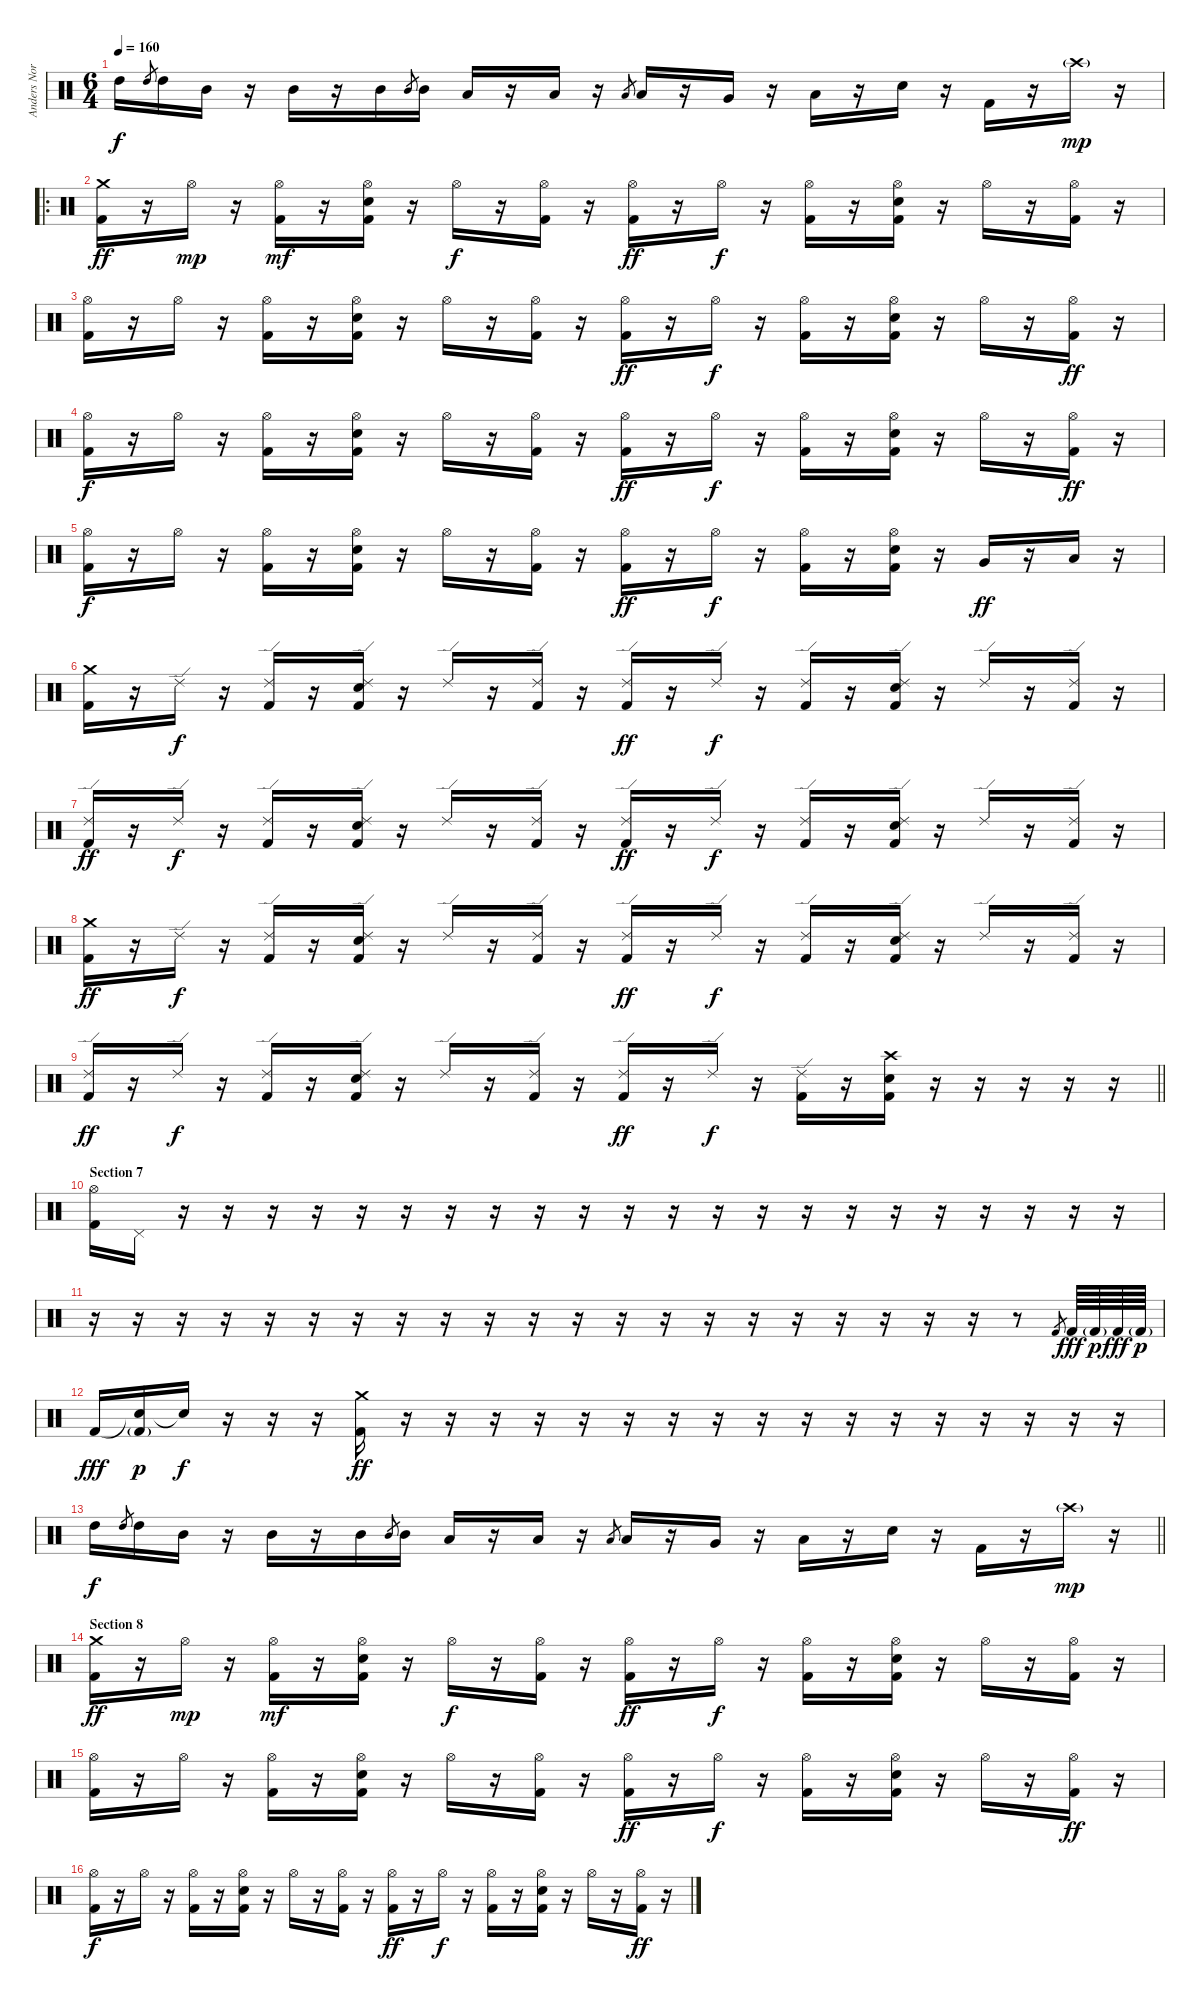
\track ("Anders Nordin" "Anders Nor") {instrument percussion}
\staff {score}
\articulation defaults
\ts (6 4)
\tempo 160
\clef neutral
\ks c "High Tom (hit)".16{dy f} "High Tom (hit)".8{gr} "High Tom (hit)".16 "Mid Tom (hit)".16
r.16 "Mid Tom (hit)".16 r.16 "Mid Tom (hit)".16 "Mid Tom (hit)".8{gr} "Mid Tom (hit)".16 "Low Tom (hit)".16 r.16 "Low Tom (hit)".16 r.16 "Low Tom (hit)".8{gr} "Low Tom (hit)".16 r.16 "Very Low Tom (hit)".16 r.16 "Low Floor Tom (hit)".16 r.16 "Snare (hit) 2".16 r.16 "Kick (hit) 2".16 r.16 "Crash high (hit)"{g}.16{dy mp} r.16 |
\ro
("Crash medium (hit)" "Kick (hit) 2").16{dy ff} r.16 "Hi-Hat (open)".16{dy mp} r.16 ("Hi-Hat (open)" "Kick (hit) 2").16{dy mf} r.16 ("Hi-Hat (open)" "Snare (hit) 2" "Kick (hit) 2").16 r.16 "Hi-Hat (open)".16{dy f} r.16 ("Hi-Hat (open)" "Kick (hit) 2").16 r.16 ("Hi-Hat (open)" "Kick (hit) 2").16{dy ff} r.16 "Hi-Hat (open)".16{dy f} r.16 ("Hi-Hat (open)" "Kick (hit) 2").16 r.16 ("Hi-Hat (open)" "Snare (hit) 2" "Kick (hit) 2").16 r.16 "Hi-Hat (open)".16 r.16 ("Hi-Hat (open)" "Kick (hit) 2").16 r.16 |
("Hi-Hat (open)" "Kick (hit) 2").16 r.16 "Hi-Hat (open)".16 r.16 ("Hi-Hat (open)" "Kick (hit) 2").16 r.16 ("Hi-Hat (open)" "Snare (hit) 2" "Kick (hit) 2").16 r.16 "Hi-Hat (open)".16 r.16 ("Hi-Hat (open)" "Kick (hit) 2").16 r.16 ("Hi-Hat (open)" "Kick (hit) 2").16{dy ff} r.16 "Hi-Hat (open)".16{dy f} r.16 ("Hi-Hat (open)" "Kick (hit) 2").16 r.16 ("Hi-Hat (open)" "Snare (hit) 2" "Kick (hit) 2").16 r.16 "Hi-Hat (open)".16 r.16 ("Hi-Hat (open)" "Kick (hit) 2").16{dy ff} r.16 |
("Hi-Hat (open)" "Kick (hit) 2").16{dy f} r.16 "Hi-Hat (open)".16 r.16 ("Hi-Hat (open)" "Kick (hit) 2").16 r.16 ("Hi-Hat (open)" "Snare (hit) 2" "Kick (hit) 2").16 r.16 "Hi-Hat (open)".16 r.16 ("Hi-Hat (open)" "Kick (hit) 2").16 r.16 ("Hi-Hat (open)" "Kick (hit) 2").16{dy ff} r.16 "Hi-Hat (open)".16{dy f} r.16 ("Hi-Hat (open)" "Kick (hit) 2").16 r.16 ("Hi-Hat (open)" "Snare (hit) 2" "Kick (hit) 2").16 r.16 "Hi-Hat (open)".16 r.16 ("Hi-Hat (open)" "Kick (hit) 2").16{dy ff} r.16 |
("Hi-Hat (open)" "Kick (hit) 2").16{dy f} r.16 "Hi-Hat (open)".16 r.16 ("Hi-Hat (open)" "Kick (hit) 2").16 r.16 ("Hi-Hat (open)" "Snare (hit) 2" "Kick (hit) 2").16 r.16 "Hi-Hat (open)".16 r.16 ("Hi-Hat (open)" "Kick (hit) 2").16 r.16 ("Hi-Hat (open)" "Kick (hit) 2").16{dy ff} r.16 "Hi-Hat (open)".16{dy f} r.16 ("Hi-Hat (open)" "Kick (hit) 2").16 r.16 ("Hi-Hat (open)" "Snare (hit) 2" "Kick (hit) 2").16 r.16 "Very Low Tom (hit)".16{dy ff} r.16 "Low Floor Tom (hit)".16 r.16 |
("Crash medium (hit)" "Kick (hit) 2").16 r.16 "Ride (edge) 2".16{dy f} r.16 ("Ride (edge) 2" "Kick (hit) 2").16 r.16 ("Ride (edge) 2" "Snare (hit) 2" "Kick (hit) 2").16 r.16 "Ride (edge) 2".16 r.16 ("Ride (edge) 2" "Kick (hit) 2").16 r.16 ("Ride (edge) 2" "Kick (hit) 2").16{dy ff} r.16 "Ride (edge) 2".16{dy f} r.16 ("Ride (edge) 2" "Kick (hit) 2").16 r.16 ("Ride (edge) 2" "Snare (hit) 2" "Kick (hit) 2").16 r.16 "Ride (edge) 2".16 r.16 ("Ride (edge) 2" "Kick (hit) 2").16 r.16 |
("Ride (edge) 2" "Kick (hit) 2").16{dy ff} r.16 "Ride (edge) 2".16{dy f} r.16 ("Ride (edge) 2" "Kick (hit) 2").16 r.16 ("Ride (edge) 2" "Snare (hit) 2" "Kick (hit) 2").16 r.16 "Ride (edge) 2".16 r.16 ("Ride (edge) 2" "Kick (hit) 2").16 r.16 ("Ride (edge) 2" "Kick (hit) 2").16{dy ff} r.16 "Ride (edge) 2".16{dy f} r.16 ("Ride (edge) 2" "Kick (hit) 2").16 r.16 ("Ride (edge) 2" "Snare (hit) 2" "Kick (hit) 2").16 r.16 "Ride (edge) 2".16 r.16 ("Ride (edge) 2" "Kick (hit) 2").16 r.16 |
("Crash medium (hit)" "Kick (hit) 2").16{dy ff} r.16 "Ride (edge) 2".16{dy f} r.16 ("Ride (edge) 2" "Kick (hit) 2").16 r.16 ("Ride (edge) 2" "Snare (hit) 2" "Kick (hit) 2").16 r.16 "Ride (edge) 2".16 r.16 ("Ride (edge) 2" "Kick (hit) 2").16 r.16 ("Ride (edge) 2" "Kick (hit) 2").16{dy ff} r.16 "Ride (edge) 2".16{dy f} r.16 ("Ride (edge) 2" "Kick (hit) 2").16 r.16 ("Ride (edge) 2" "Snare (hit) 2" "Kick (hit) 2").16 r.16 "Ride (edge) 2".16 r.16 ("Ride (edge) 2" "Kick (hit) 2").16 r.16 |
\barLineRight lightlight
("Ride (edge) 2" "Kick (hit) 2").16{dy ff} r.16 "Ride (edge) 2".16{dy f} r.16 ("Ride (edge) 2" "Kick (hit) 2").16 r.16 ("Ride (edge) 2" "Snare (hit) 2" "Kick (hit) 2").16 r.16 "Ride (edge) 2".16 r.16 ("Ride (edge) 2" "Kick (hit) 2").16 r.16 ("Ride (edge) 2" "Kick (hit) 2").16{dy ff} r.16 "Ride (edge) 2".16{dy f} r.16 ("Ride (edge) 2" "Kick (hit) 2").16 r.16 ("Crash high (hit)" "Snare (hit) 2" "Kick (hit) 2").16 r.16 r.16 r.16 r.16 r.16 |
\section ("" "Section 7")
("Hi-Hat (open)" "Kick (hit) 2").16 "Pedal Hi-Hat (hit)".16 r.16 r.16 r.16 r.16 r.16 r.16 r.16 r.16 r.16 r.16 r.16 r.16 r.16 r.16 r.16 r.16 r.16 r.16 r.16 r.16 r.16 r.16 |
r.16 r.16 r.16 r.16 r.16 r.16 r.16 r.16 r.16 r.16 r.16 r.16 r.16 r.16 r.16 r.16 r.16 r.16 r.16 r.16 r.16 r.8{volume 16} "Kick (hit) 2".8{gr} "Kick (hit) 2".64{dy fff} "Kick (hit) 2"{g}.64{dy p} "Kick (hit) 2".64{dy fff} "Kick (hit) 2"{g}.64{dy p} |
"Kick (hit) 2".16{dy fff} ("Snare (hit)"{t} "Kick (hit) 2"{g}).16{dy p} "Snare (hit)"{t}.16{dy f volume 13} r.16 r.16 r.16 ("Crash medium (hit)" "Kick (hit) 2").16{dy ff} r.16 r.16 r.16 r.16 r.16 r.16 r.16 r.16 r.16 r.16 r.16 r.16 r.16 r.16 r.16 r.16 r.16 |
\barLineRight lightlight "High Tom (hit)".16{dy f} "High Tom (hit)".8{gr} "High Tom (hit)".16 "Mid Tom (hit)".16
r.16 "Mid Tom (hit)".16 r.16 "Mid Tom (hit)".16 "Mid Tom (hit)".8{gr} "Mid Tom (hit)".16 "Low Tom (hit)".16 r.16 "Low Tom (hit)".16 r.16 "Low Tom (hit)".8{gr} "Low Tom (hit)".16 r.16 "Very Low Tom (hit)".16 r.16 "Low Floor Tom (hit)".16 r.16 "Snare (hit) 2".16 r.16 "Kick (hit) 2".16 r.16 "Crash high (hit)"{g}.16{dy mp} r.16 |
\section ("" "Section 8")
("Crash medium (hit)" "Kick (hit) 2").16{dy ff} r.16 "Hi-Hat (open)".16{dy mp} r.16 ("Hi-Hat (open)" "Kick (hit) 2").16{dy mf} r.16 ("Hi-Hat (open)" "Snare (hit) 2" "Kick (hit) 2").16 r.16 "Hi-Hat (open)".16{dy f} r.16 ("Hi-Hat (open)" "Kick (hit) 2").16 r.16 ("Hi-Hat (open)" "Kick (hit) 2").16{dy ff} r.16 "Hi-Hat (open)".16{dy f} r.16 ("Hi-Hat (open)" "Kick (hit) 2").16 r.16 ("Hi-Hat (open)" "Snare (hit) 2" "Kick (hit) 2").16 r.16 "Hi-Hat (open)".16 r.16 ("Hi-Hat (open)" "Kick (hit) 2").16 r.16 |
("Hi-Hat (open)" "Kick (hit) 2").16 r.16 "Hi-Hat (open)".16 r.16 ("Hi-Hat (open)" "Kick (hit) 2").16 r.16 ("Hi-Hat (open)" "Snare (hit) 2" "Kick (hit) 2").16 r.16 "Hi-Hat (open)".16 r.16 ("Hi-Hat (open)" "Kick (hit) 2").16 r.16 ("Hi-Hat (open)" "Kick (hit) 2").16{dy ff} r.16 "Hi-Hat (open)".16{dy f} r.16 ("Hi-Hat (open)" "Kick (hit) 2").16 r.16 ("Hi-Hat (open)" "Snare (hit) 2" "Kick (hit) 2").16 r.16 "Hi-Hat (open)".16 r.16 ("Hi-Hat (open)" "Kick (hit) 2").16{dy ff} r.16 |
("Hi-Hat (open)" "Kick (hit) 2").16{dy f} r.16 "Hi-Hat (open)".16 r.16 ("Hi-Hat (open)" "Kick (hit) 2").16 r.16 ("Hi-Hat (open)" "Snare (hit) 2" "Kick (hit) 2").16 r.16 "Hi-Hat (open)".16 r.16 ("Hi-Hat (open)" "Kick (hit) 2").16 r.16 ("Hi-Hat (open)" "Kick (hit) 2").16{dy ff} r.16 "Hi-Hat (open)".16{dy f} r.16 ("Hi-Hat (open)" "Kick (hit) 2").16 r.16 ("Hi-Hat (open)" "Snare (hit) 2" "Kick (hit) 2").16 r.16 "Hi-Hat (open)".16 r.16 ("Hi-Hat (open)" "Kick (hit) 2").16{dy ff} r.16
